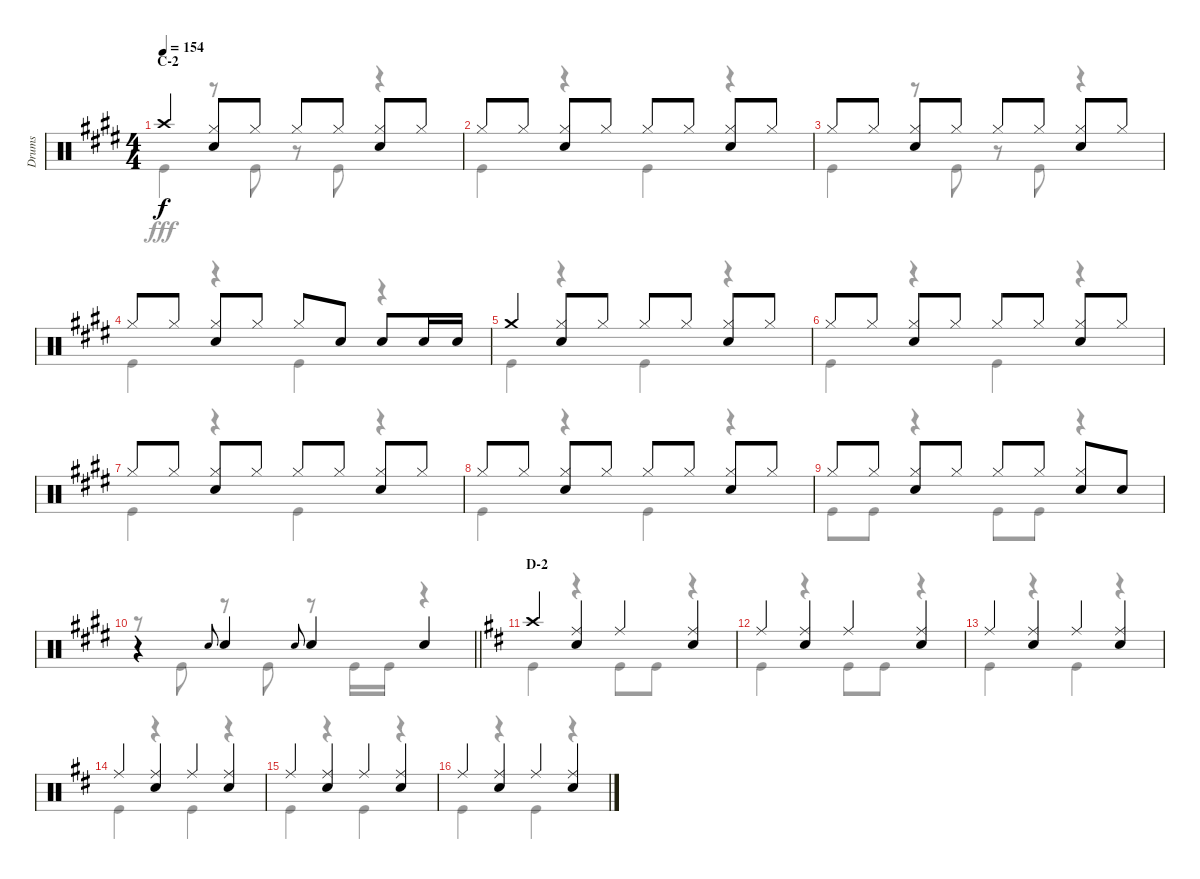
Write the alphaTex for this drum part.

\track ("Drums" "Drums") {instrument percussion}
\staff {score}
\articulation defaults
\voice
\ts (4 4)
\section ("" "C-2")
\tempo 154
\clef neutral
\ks e "Crash high (hit)".4{dy f}
("Hi-Hat (closed)" "Snare (hit) 2").8 "Hi-Hat (closed)".8 "Hi-Hat (closed)".8 "Hi-Hat (closed)".8 ("Hi-Hat (closed)" "Snare (hit) 2").8 "Hi-Hat (closed)".8 |
"Hi-Hat (closed)".8 "Hi-Hat (closed)".8 ("Hi-Hat (closed)" "Snare (hit) 2").8 "Hi-Hat (closed)".8 "Hi-Hat (closed)".8 "Hi-Hat (closed)".8 ("Hi-Hat (closed)" "Snare (hit) 2").8 "Hi-Hat (closed)".8 |
"Hi-Hat (closed)".8 "Hi-Hat (closed)".8 ("Hi-Hat (closed)" "Snare (hit) 2").8 "Hi-Hat (closed)".8 "Hi-Hat (closed)".8 "Hi-Hat (closed)".8 ("Hi-Hat (closed)" "Snare (hit) 2").8 "Hi-Hat (closed)".8 |
"Hi-Hat (closed)".8 "Hi-Hat (closed)".8 ("Hi-Hat (closed)" "Snare (hit) 2").8 "Hi-Hat (closed)".8 "Hi-Hat (closed)".8 "Snare (hit) 2".8 "Snare (hit) 2".8 "Snare (hit) 2".16 "Snare (hit) 2".16 |
"Crash medium (hit)".4 ("Hi-Hat (closed)" "Snare (hit) 2").8 "Hi-Hat (closed)".8 "Hi-Hat (closed)".8 "Hi-Hat (closed)".8 ("Hi-Hat (closed)" "Snare (hit) 2").8 "Hi-Hat (closed)".8 |
"Hi-Hat (closed)".8 "Hi-Hat (closed)".8 ("Hi-Hat (closed)" "Snare (hit) 2").8 "Hi-Hat (closed)".8 "Hi-Hat (closed)".8 "Hi-Hat (closed)".8 ("Hi-Hat (closed)" "Snare (hit) 2").8 "Hi-Hat (closed)".8 |
"Hi-Hat (closed)".8 "Hi-Hat (closed)".8 ("Hi-Hat (closed)" "Snare (hit) 2").8 "Hi-Hat (closed)".8 "Hi-Hat (closed)".8 "Hi-Hat (closed)".8 ("Hi-Hat (closed)" "Snare (hit) 2").8 "Hi-Hat (closed)".8 |
"Hi-Hat (closed)".8 "Hi-Hat (closed)".8 ("Hi-Hat (closed)" "Snare (hit) 2").8 "Hi-Hat (closed)".8 "Hi-Hat (closed)".8 "Hi-Hat (closed)".8 ("Hi-Hat (closed)" "Snare (hit) 2").8 "Hi-Hat (closed)".8 |
"Hi-Hat (closed)".8 "Hi-Hat (closed)".8 ("Hi-Hat (closed)" "Snare (hit) 2").8 "Hi-Hat (closed)".8 "Hi-Hat (closed)".8 "Hi-Hat (closed)".8 ("Hi-Hat (closed)" "Snare (hit) 2").8 "Snare (hit) 2".8 |
\barLineRight lightlight
r.4 "Snare (hit) 2".8{gr onbeat} "Snare (hit) 2".4 "Snare (hit) 2".8{gr onbeat} "Snare (hit) 2".4 "Snare (hit) 2".4 |
\section ("" "D-2")
\ks d "Crash high (hit)".4
("Ride (middle)" "Snare (hit) 2").4 "Ride (middle)".4 ("Ride (middle)" "Snare (hit) 2").4 |
"Ride (middle)".4 ("Ride (middle)" "Snare (hit) 2").4 "Ride (middle)".4 ("Ride (middle)" "Snare (hit) 2").4 |
"Ride (middle)".4 ("Ride (middle)" "Snare (hit) 2").4 "Ride (middle)".4 ("Ride (middle)" "Snare (hit) 2").4 |
"Ride (middle)".4 ("Ride (middle)" "Snare (hit) 2").4 "Ride (middle)".4 ("Ride (middle)" "Snare (hit) 2").4 |
"Ride (middle)".4 ("Ride (middle)" "Snare (hit) 2").4 "Ride (middle)".4 ("Ride (middle)" "Snare (hit) 2").4 |
"Ride (middle)".4 ("Ride (middle)" "Snare (hit) 2").4 "Ride (middle)".4 ("Ride (middle)" "Snare (hit) 2").4
\voice
\clef neutral
\ottava regular
\simile none
\ks e "Kick (hit)".4{dy fff}
r.8 "Kick (hit)".8 r.8 "Kick (hit)".8 r.4 |
"Kick (hit)".4 r.4 "Kick (hit)".4 r.4 |
"Kick (hit)".4 r.8 "Kick (hit)".8 r.8 "Kick (hit)".8 r.4 |
"Kick (hit)".4 r.4 "Kick (hit)".4 r.4 |
"Kick (hit)".4 r.4 "Kick (hit)".4 r.4 |
"Kick (hit)".4 r.4 "Kick (hit)".4 r.4 |
"Kick (hit)".4 r.4 "Kick (hit)".4 r.4 |
"Kick (hit)".4 r.4 "Kick (hit)".4 r.4 |
"Kick (hit)".8 "Kick (hit)".8 r.4 "Kick (hit)".8 "Kick (hit)".8 r.4 |
\barLineRight lightlight
r.8 "Kick (hit)".8 r.8 "Kick (hit)".8 r.8 "Kick (hit)".16 "Kick (hit)".16 r.4 |
\ks d "Kick (hit)".4
r.4 "Kick (hit)".8 "Kick (hit)".8 r.4 |
"Kick (hit)".4 r.4 "Kick (hit)".8 "Kick (hit)".8 r.4 |
"Kick (hit)".4 r.4 "Kick (hit)".4 r.4 |
"Kick (hit)".4 r.4 "Kick (hit)".4 r.4 |
"Kick (hit)".4 r.4 "Kick (hit)".4 r.4 |
"Kick (hit)".4 r.4 "Kick (hit)".4 r.4
